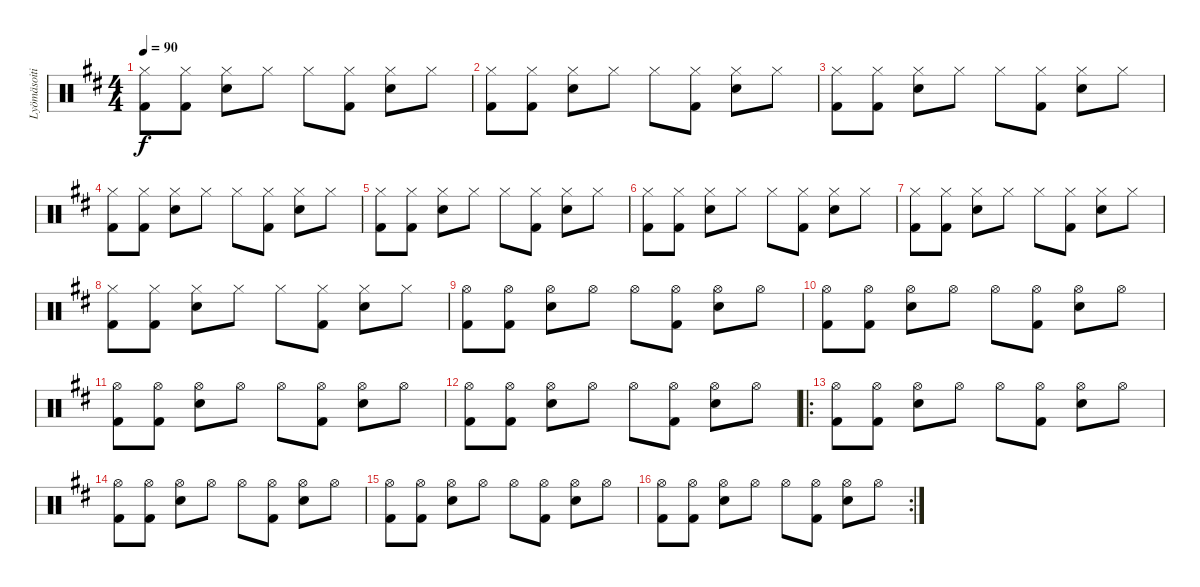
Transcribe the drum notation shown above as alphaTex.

\track ("Lyömäsoitin" "Lyömäsoiti") {instrument percussion}
\staff {score}
\articulation defaults
\ts (4 4)
\tempo 90
\clef neutral
\ks d
("Hi-Hat (closed)" "Kick (hit) 2").8{dy f} ("Hi-Hat (closed)" "Kick (hit) 2").8 ("Hi-Hat (closed)" "Snare (hit) 2").8 "Hi-Hat (closed)".8 "Hi-Hat (closed)".8 ("Hi-Hat (closed)" "Kick (hit) 2").8 ("Hi-Hat (closed)" "Snare (hit) 2").8 "Hi-Hat (closed)".8 |
("Hi-Hat (closed)" "Kick (hit) 2").8 ("Hi-Hat (closed)" "Kick (hit) 2").8 ("Hi-Hat (closed)" "Snare (hit) 2").8 "Hi-Hat (closed)".8 "Hi-Hat (closed)".8 ("Hi-Hat (closed)" "Kick (hit) 2").8 ("Hi-Hat (closed)" "Snare (hit) 2").8 "Hi-Hat (closed)".8 |
("Hi-Hat (closed)" "Kick (hit) 2").8 ("Hi-Hat (closed)" "Kick (hit) 2").8 ("Hi-Hat (closed)" "Snare (hit) 2").8 "Hi-Hat (closed)".8 "Hi-Hat (closed)".8 ("Hi-Hat (closed)" "Kick (hit) 2").8 ("Hi-Hat (closed)" "Snare (hit) 2").8 "Hi-Hat (closed)".8 |
("Hi-Hat (closed)" "Kick (hit) 2").8 ("Hi-Hat (closed)" "Kick (hit) 2").8 ("Hi-Hat (closed)" "Snare (hit) 2").8 "Hi-Hat (closed)".8 "Hi-Hat (closed)".8 ("Hi-Hat (closed)" "Kick (hit) 2").8 ("Hi-Hat (closed)" "Snare (hit) 2").8 "Hi-Hat (closed)".8 |
("Hi-Hat (closed)" "Kick (hit) 2").8 ("Hi-Hat (closed)" "Kick (hit) 2").8 ("Hi-Hat (closed)" "Snare (hit) 2").8 "Hi-Hat (closed)".8 "Hi-Hat (closed)".8 ("Hi-Hat (closed)" "Kick (hit) 2").8 ("Hi-Hat (closed)" "Snare (hit) 2").8 "Hi-Hat (closed)".8 |
("Hi-Hat (closed)" "Kick (hit) 2").8 ("Hi-Hat (closed)" "Kick (hit) 2").8 ("Hi-Hat (closed)" "Snare (hit) 2").8 "Hi-Hat (closed)".8 "Hi-Hat (closed)".8 ("Hi-Hat (closed)" "Kick (hit) 2").8 ("Hi-Hat (closed)" "Snare (hit) 2").8 "Hi-Hat (closed)".8 |
("Hi-Hat (closed)" "Kick (hit) 2").8 ("Hi-Hat (closed)" "Kick (hit) 2").8 ("Hi-Hat (closed)" "Snare (hit) 2").8 "Hi-Hat (closed)".8 "Hi-Hat (closed)".8 ("Hi-Hat (closed)" "Kick (hit) 2").8 ("Hi-Hat (closed)" "Snare (hit) 2").8 "Hi-Hat (closed)".8 |
("Hi-Hat (closed)" "Kick (hit) 2").8 ("Hi-Hat (closed)" "Kick (hit) 2").8 ("Hi-Hat (closed)" "Snare (hit) 2").8 "Hi-Hat (closed)".8 "Hi-Hat (closed)".8 ("Hi-Hat (closed)" "Kick (hit) 2").8 ("Hi-Hat (closed)" "Snare (hit) 2").8 "Hi-Hat (closed)".8 |
("Hi-Hat (open)" "Kick (hit) 2").8 ("Hi-Hat (open)" "Kick (hit) 2").8 ("Hi-Hat (open)" "Snare (hit) 2").8 "Hi-Hat (open)".8 "Hi-Hat (open)".8 ("Hi-Hat (open)" "Kick (hit) 2").8 ("Hi-Hat (open)" "Snare (hit) 2").8 "Hi-Hat (open)".8 |
("Hi-Hat (open)" "Kick (hit) 2").8 ("Hi-Hat (open)" "Kick (hit) 2").8 ("Hi-Hat (open)" "Snare (hit) 2").8 "Hi-Hat (open)".8 "Hi-Hat (open)".8 ("Hi-Hat (open)" "Kick (hit) 2").8 ("Hi-Hat (open)" "Snare (hit) 2").8 "Hi-Hat (open)".8 |
("Hi-Hat (open)" "Kick (hit) 2").8 ("Hi-Hat (open)" "Kick (hit) 2").8 ("Hi-Hat (open)" "Snare (hit) 2").8 "Hi-Hat (open)".8 "Hi-Hat (open)".8 ("Hi-Hat (open)" "Kick (hit) 2").8 ("Hi-Hat (open)" "Snare (hit) 2").8 "Hi-Hat (open)".8 |
("Hi-Hat (open)" "Kick (hit) 2").8 ("Hi-Hat (open)" "Kick (hit) 2").8 ("Hi-Hat (open)" "Snare (hit) 2").8 "Hi-Hat (open)".8 "Hi-Hat (open)".8 ("Hi-Hat (open)" "Kick (hit) 2").8 ("Hi-Hat (open)" "Snare (hit) 2").8 "Hi-Hat (open)".8 |
\ro
("Hi-Hat (open)" "Kick (hit) 2").8 ("Hi-Hat (open)" "Kick (hit) 2").8 ("Hi-Hat (open)" "Snare (hit) 2").8 "Hi-Hat (open)".8 "Hi-Hat (open)".8 ("Hi-Hat (open)" "Kick (hit) 2").8 ("Hi-Hat (open)" "Snare (hit) 2").8 "Hi-Hat (open)".8 |
("Hi-Hat (open)" "Kick (hit) 2").8 ("Hi-Hat (open)" "Kick (hit) 2").8 ("Hi-Hat (open)" "Snare (hit) 2").8 "Hi-Hat (open)".8 "Hi-Hat (open)".8 ("Hi-Hat (open)" "Kick (hit) 2").8 ("Hi-Hat (open)" "Snare (hit) 2").8 "Hi-Hat (open)".8 |
("Hi-Hat (open)" "Kick (hit) 2").8 ("Hi-Hat (open)" "Kick (hit) 2").8 ("Hi-Hat (open)" "Snare (hit) 2").8 "Hi-Hat (open)".8 "Hi-Hat (open)".8 ("Hi-Hat (open)" "Kick (hit) 2").8 ("Hi-Hat (open)" "Snare (hit) 2").8 "Hi-Hat (open)".8 |
\rc 2
("Hi-Hat (open)" "Kick (hit) 2").8 ("Hi-Hat (open)" "Kick (hit) 2").8 ("Hi-Hat (open)" "Snare (hit) 2").8 "Hi-Hat (open)".8 "Hi-Hat (open)".8 ("Hi-Hat (open)" "Kick (hit) 2").8 ("Hi-Hat (open)" "Snare (hit) 2").8 "Hi-Hat (open)".8
